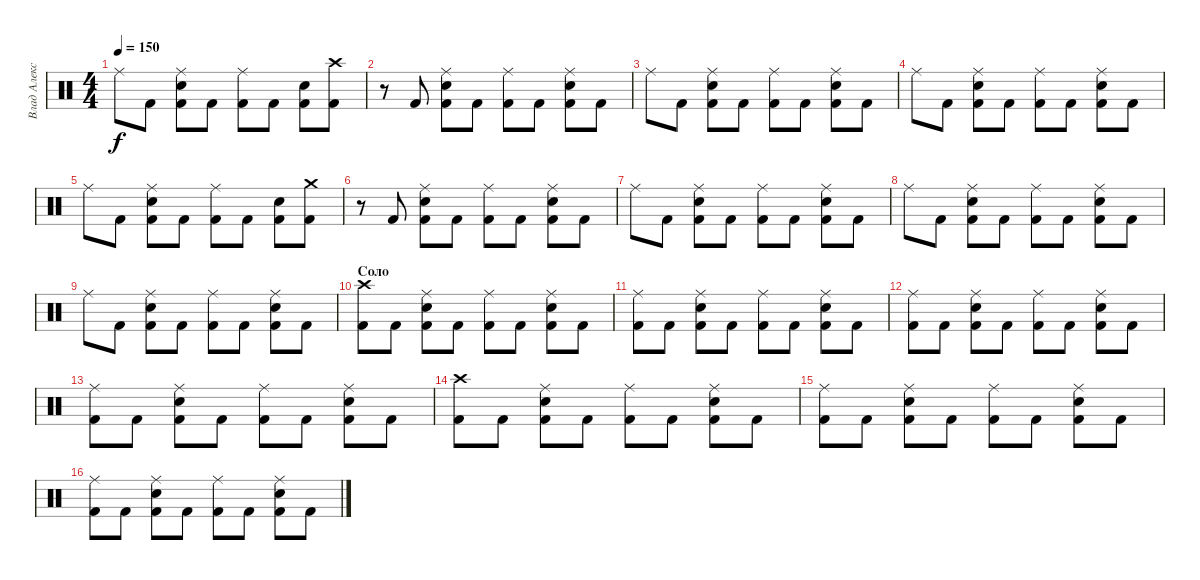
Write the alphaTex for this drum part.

\track ("Влад Алексеенко" "Влад Алекс") {instrument percussion}
\staff {score}
\articulation defaults
\ts (4 4)
\tempo 150
\clef neutral
\ks c "Ride (middle)".8{dy f} "Kick (hit) 2".8
("Ride (middle)" "Electric Snare (hit)" "Kick (hit) 2").8 "Kick (hit) 2".8 ("Ride (middle)" "Kick (hit) 2").8 "Kick (hit) 2".8 ("Electric Snare (hit)" "Kick (hit) 2").8 ("Crash high (hit)" "Kick (hit) 2").8 |
r.8 "Kick (hit) 2".8 ("Ride (middle)" "Electric Snare (hit)" "Kick (hit) 2").8 "Kick (hit) 2".8 ("Ride (middle)" "Kick (hit) 2").8 "Kick (hit) 2".8 ("Ride (middle)" "Electric Snare (hit)" "Kick (hit) 2").8 "Kick (hit) 2".8 |
"Ride (middle)".8 "Kick (hit) 2".8 ("Ride (middle)" "Electric Snare (hit)" "Kick (hit) 2").8 "Kick (hit) 2".8 ("Ride (middle)" "Kick (hit) 2").8 "Kick (hit) 2".8 ("Ride (middle)" "Electric Snare (hit)" "Kick (hit) 2").8 "Kick (hit) 2".8 |
"Ride (middle)".8 "Kick (hit) 2".8 ("Ride (middle)" "Electric Snare (hit)" "Kick (hit) 2").8 "Kick (hit) 2".8 ("Ride (middle)" "Kick (hit) 2").8 "Kick (hit) 2".8 ("Ride (middle)" "Electric Snare (hit)" "Kick (hit) 2").8 "Kick (hit) 2".8 |
"Ride (middle)".8 "Kick (hit) 2".8 ("Ride (middle)" "Electric Snare (hit)" "Kick (hit) 2").8 "Kick (hit) 2".8 ("Ride (middle)" "Kick (hit) 2").8 "Kick (hit) 2".8 ("Electric Snare (hit)" "Kick (hit) 2").8 ("Crash medium (hit)" "Kick (hit) 2").8 |
r.8 "Kick (hit) 2".8 ("Ride (middle)" "Electric Snare (hit)" "Kick (hit) 2").8 "Kick (hit) 2".8 ("Ride (middle)" "Kick (hit) 2").8 "Kick (hit) 2".8 ("Ride (middle)" "Electric Snare (hit)" "Kick (hit) 2").8 "Kick (hit) 2".8 |
"Ride (middle)".8 "Kick (hit) 2".8 ("Ride (middle)" "Electric Snare (hit)" "Kick (hit) 2").8 "Kick (hit) 2".8 ("Ride (middle)" "Kick (hit) 2").8 "Kick (hit) 2".8 ("Ride (middle)" "Electric Snare (hit)" "Kick (hit) 2").8 "Kick (hit) 2".8 |
"Ride (middle)".8 "Kick (hit) 2".8 ("Ride (middle)" "Electric Snare (hit)" "Kick (hit) 2").8 "Kick (hit) 2".8 ("Ride (middle)" "Kick (hit) 2").8 "Kick (hit) 2".8 ("Ride (middle)" "Electric Snare (hit)" "Kick (hit) 2").8 "Kick (hit) 2".8 |
"Ride (middle)".8 "Kick (hit) 2".8 ("Ride (middle)" "Electric Snare (hit)" "Kick (hit) 2").8 "Kick (hit) 2".8 ("Ride (middle)" "Kick (hit) 2").8 "Kick (hit) 2".8 ("Ride (middle)" "Electric Snare (hit)" "Kick (hit) 2").8 "Kick (hit) 2".8 |
\section ("" "Соло")
("Crash high (hit)" "Kick (hit) 2").8 "Kick (hit) 2".8 ("Ride (middle)" "Electric Snare (hit)" "Kick (hit) 2").8 "Kick (hit) 2".8 ("Ride (middle)" "Kick (hit) 2").8 "Kick (hit) 2".8 ("Ride (middle)" "Electric Snare (hit)" "Kick (hit) 2").8 "Kick (hit) 2".8 |
("Ride (middle)" "Kick (hit) 2").8 "Kick (hit) 2".8 ("Ride (middle)" "Electric Snare (hit)" "Kick (hit) 2").8 "Kick (hit) 2".8 ("Ride (middle)" "Kick (hit) 2").8 "Kick (hit) 2".8 ("Ride (middle)" "Electric Snare (hit)" "Kick (hit) 2").8 "Kick (hit) 2".8 |
("Ride (middle)" "Kick (hit) 2").8 "Kick (hit) 2".8 ("Ride (middle)" "Electric Snare (hit)" "Kick (hit) 2").8 "Kick (hit) 2".8 ("Ride (middle)" "Kick (hit) 2").8 "Kick (hit) 2".8 ("Ride (middle)" "Electric Snare (hit)" "Kick (hit) 2").8 "Kick (hit) 2".8 |
("Ride (middle)" "Kick (hit) 2").8 "Kick (hit) 2".8 ("Ride (middle)" "Electric Snare (hit)" "Kick (hit) 2").8 "Kick (hit) 2".8 ("Ride (middle)" "Kick (hit) 2").8 "Kick (hit) 2".8 ("Ride (middle)" "Electric Snare (hit)" "Kick (hit) 2").8 "Kick (hit) 2".8 |
("Crash high (hit)" "Kick (hit) 2").8 "Kick (hit) 2".8 ("Ride (middle)" "Electric Snare (hit)" "Kick (hit) 2").8 "Kick (hit) 2".8 ("Ride (middle)" "Kick (hit) 2").8 "Kick (hit) 2".8 ("Ride (middle)" "Electric Snare (hit)" "Kick (hit) 2").8 "Kick (hit) 2".8 |
("Ride (middle)" "Kick (hit) 2").8 "Kick (hit) 2".8 ("Ride (middle)" "Electric Snare (hit)" "Kick (hit) 2").8 "Kick (hit) 2".8 ("Ride (middle)" "Kick (hit) 2").8 "Kick (hit) 2".8 ("Ride (middle)" "Electric Snare (hit)" "Kick (hit) 2").8 "Kick (hit) 2".8 |
("Ride (middle)" "Kick (hit) 2").8 "Kick (hit) 2".8 ("Ride (middle)" "Electric Snare (hit)" "Kick (hit) 2").8 "Kick (hit) 2".8 ("Ride (middle)" "Kick (hit) 2").8 "Kick (hit) 2".8 ("Ride (middle)" "Electric Snare (hit)" "Kick (hit) 2").8 "Kick (hit) 2".8
